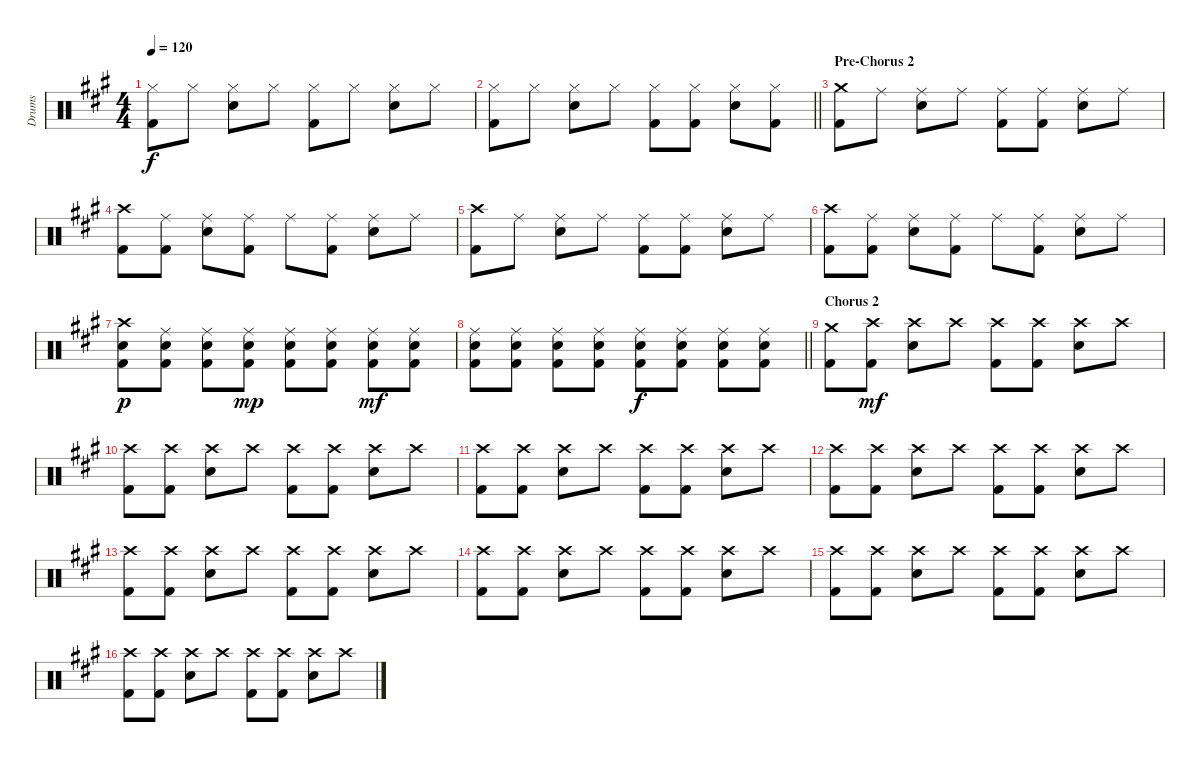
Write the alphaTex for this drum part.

\track ("Drums" "Drums") {instrument percussion}
\staff {score}
\articulation defaults
\ts (4 4)
\tempo 120
\clef neutral
\ks a
("Hi-Hat (closed)" "Kick (hit) 2").8{dy f} "Hi-Hat (closed)".8 ("Hi-Hat (closed)" "Electric Snare (hit)").8 "Hi-Hat (closed)".8 ("Hi-Hat (closed)" "Kick (hit) 2").8 "Hi-Hat (closed)".8 ("Hi-Hat (closed)" "Electric Snare (hit)").8 "Hi-Hat (closed)".8 |
\barLineRight lightlight
("Hi-Hat (closed)" "Kick (hit) 2").8 "Hi-Hat (closed)".8 ("Hi-Hat (closed)" "Electric Snare (hit)").8 "Hi-Hat (closed)".8 ("Hi-Hat (closed)" "Kick (hit) 2").8 ("Hi-Hat (closed)" "Kick (hit) 2").8 ("Hi-Hat (closed)" "Electric Snare (hit)").8 ("Hi-Hat (closed)" "Kick (hit) 2").8 |
\section ("" "Pre-Chorus 2")
("Crash medium (hit)" "Kick (hit) 2").8 "Ride (middle)".8 ("Ride (middle)" "Electric Snare (hit)").8 "Ride (middle)".8 ("Ride (middle)" "Kick (hit) 2").8 ("Ride (middle)" "Kick (hit) 2").8 ("Ride (middle)" "Electric Snare (hit)").8 "Ride (middle)".8 |
("Crash high (hit)" "Kick (hit) 2").8 ("Ride (middle)" "Kick (hit) 2").8 ("Ride (middle)" "Electric Snare (hit)").8 ("Ride (middle)" "Kick (hit) 2").8 "Ride (middle)".8 ("Ride (middle)" "Kick (hit) 2").8 ("Ride (middle)" "Electric Snare (hit)").8 "Ride (middle)".8 |
("Crash high (hit)" "Kick (hit) 2").8 "Ride (middle)".8 ("Ride (middle)" "Electric Snare (hit)").8 "Ride (middle)".8 ("Ride (middle)" "Kick (hit) 2").8 ("Ride (middle)" "Kick (hit) 2").8 ("Ride (middle)" "Electric Snare (hit)").8 "Ride (middle)".8 |
("Crash high (hit)" "Kick (hit) 2").8 ("Ride (middle)" "Kick (hit) 2").8 ("Ride (middle)" "Electric Snare (hit)").8 ("Ride (middle)" "Kick (hit) 2").8 "Ride (middle)".8 ("Ride (middle)" "Kick (hit) 2").8 ("Ride (middle)" "Electric Snare (hit)").8 "Ride (middle)".8 |
("Crash high (hit)" "Electric Snare (hit)" "Kick (hit) 2").8{dy p} ("Ride (middle)" "Electric Snare (hit)" "Kick (hit) 2").8 ("Ride (middle)" "Electric Snare (hit)" "Kick (hit) 2").8 ("Ride (middle)" "Electric Snare (hit)" "Kick (hit) 2").8{dy mp} ("Ride (middle)" "Electric Snare (hit)" "Kick (hit) 2").8 ("Ride (middle)" "Electric Snare (hit)" "Kick (hit) 2").8 ("Ride (middle)" "Electric Snare (hit)" "Kick (hit) 2").8{dy mf} ("Ride (middle)" "Electric Snare (hit)" "Kick (hit) 2").8 |
\barLineRight lightlight
("Ride (middle)" "Electric Snare (hit)" "Kick (hit) 2").8 ("Ride (middle)" "Electric Snare (hit)" "Kick (hit) 2").8 ("Ride (middle)" "Electric Snare (hit)" "Kick (hit) 2").8 ("Ride (middle)" "Electric Snare (hit)" "Kick (hit) 2").8 ("Ride (middle)" "Electric Snare (hit)" "Kick (hit) 2").8{dy f} ("Ride (middle)" "Electric Snare (hit)" "Kick (hit) 2").8 ("Ride (middle)" "Electric Snare (hit)" "Kick (hit) 2").8 ("Ride (middle)" "Electric Snare (hit)" "Kick (hit) 2").8 |
\section ("" "Chorus 2")
("Crash medium (hit)" "Kick (hit) 2").8 ("Crash high (hit)" "Kick (hit) 2").8{dy mf} ("Crash high (hit)" "Electric Snare (hit)").8 "Crash high (hit)".8 ("Crash high (hit)" "Kick (hit) 2").8 ("Crash high (hit)" "Kick (hit) 2").8 ("Crash high (hit)" "Electric Snare (hit)").8 "Crash high (hit)".8 |
("Crash high (hit)" "Kick (hit) 2").8 ("Crash high (hit)" "Kick (hit) 2").8 ("Crash high (hit)" "Electric Snare (hit)").8 "Crash high (hit)".8 ("Crash high (hit)" "Kick (hit) 2").8 ("Crash high (hit)" "Kick (hit) 2").8 ("Crash high (hit)" "Electric Snare (hit)").8 "Crash high (hit)".8 |
("Crash high (hit)" "Kick (hit) 2").8 ("Crash high (hit)" "Kick (hit) 2").8 ("Crash high (hit)" "Electric Snare (hit)").8 "Crash high (hit)".8 ("Crash high (hit)" "Kick (hit) 2").8 ("Crash high (hit)" "Kick (hit) 2").8 ("Crash high (hit)" "Electric Snare (hit)").8 "Crash high (hit)".8 |
("Crash high (hit)" "Kick (hit) 2").8 ("Crash high (hit)" "Kick (hit) 2").8 ("Crash high (hit)" "Electric Snare (hit)").8 "Crash high (hit)".8 ("Crash high (hit)" "Kick (hit) 2").8 ("Crash high (hit)" "Kick (hit) 2").8 ("Crash high (hit)" "Electric Snare (hit)").8 "Crash high (hit)".8 |
("Crash high (hit)" "Kick (hit) 2").8 ("Crash high (hit)" "Kick (hit) 2").8 ("Crash high (hit)" "Electric Snare (hit)").8 "Crash high (hit)".8 ("Crash high (hit)" "Kick (hit) 2").8 ("Crash high (hit)" "Kick (hit) 2").8 ("Crash high (hit)" "Electric Snare (hit)").8 "Crash high (hit)".8 |
("Crash high (hit)" "Kick (hit) 2").8 ("Crash high (hit)" "Kick (hit) 2").8 ("Crash high (hit)" "Electric Snare (hit)").8 "Crash high (hit)".8 ("Crash high (hit)" "Kick (hit) 2").8 ("Crash high (hit)" "Kick (hit) 2").8 ("Crash high (hit)" "Electric Snare (hit)").8 "Crash high (hit)".8 |
("Crash high (hit)" "Kick (hit) 2").8 ("Crash high (hit)" "Kick (hit) 2").8 ("Crash high (hit)" "Electric Snare (hit)").8 "Crash high (hit)".8 ("Crash high (hit)" "Kick (hit) 2").8 ("Crash high (hit)" "Kick (hit) 2").8 ("Crash high (hit)" "Electric Snare (hit)").8 "Crash high (hit)".8 |
("Crash high (hit)" "Kick (hit) 2").8 ("Crash high (hit)" "Kick (hit) 2").8 ("Crash high (hit)" "Electric Snare (hit)").8 "Crash high (hit)".8 ("Crash high (hit)" "Kick (hit) 2").8 ("Crash high (hit)" "Kick (hit) 2").8 ("Crash high (hit)" "Electric Snare (hit)").8 "Crash high (hit)".8
